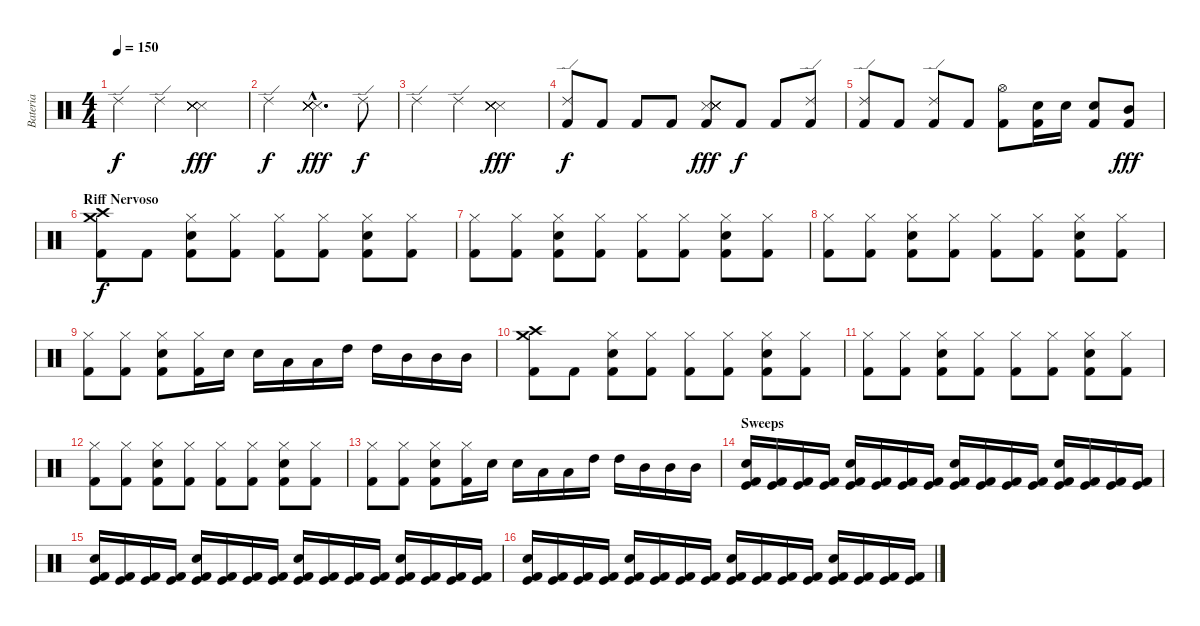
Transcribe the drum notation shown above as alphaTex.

\track ("Bateria" "Bateria") {instrument percussion}
\staff {score}
\articulation defaults
\ts (4 4)
\tempo 150
\clef neutral
\ks c "Ride (edge) 2".4{dy f} "Ride (edge) 2".4
("Snare (side stick) 3" "Snare (side stick) 3" "Snare (side stick) 3" "Snare (side stick) 3" "Snare (side stick) 3" "Snare (side stick) 3").2{dy fff} |
"Ride (edge) 2".2{dy f} ("Snare (side stick) 3"{hac} "Snare (side stick) 3"{hac} "Snare (side stick) 3"{hac} "Snare (side stick) 3"{hac} "Snare (side stick) 3"{hac} "Snare (side stick) 3"{hac}).4{d dy fff} "Ride (edge) 2".8{dy f} |
"Ride (edge) 2".4 "Ride (edge) 2".4 ("Snare (side stick) 3" "Snare (side stick) 3" "Snare (side stick) 3" "Snare (side stick) 3" "Snare (side stick) 3" "Snare (side stick) 3").2{dy fff} |
("Kick (hit) 2" "Ride (edge) 2").8{dy f} "Kick (hit) 2".8 "Kick (hit) 2".8 "Kick (hit) 2".8 ("Kick (hit) 2" "Snare (side stick) 3" "Snare (side stick) 3" "Snare (side stick) 3" "Snare (side stick) 3" "Snare (side stick) 3").8{dy fff} "Kick (hit) 2".8{dy f} "Kick (hit) 2".8 ("Kick (hit) 2" "Ride (edge) 2").8 |
("Kick (hit) 2" "Ride (edge) 2").8 "Kick (hit) 2".8 ("Kick (hit) 2" "Ride (edge) 2").8 "Kick (hit) 2".8 ("Kick (hit) 2" "Hi-Hat (open)").8 ("Kick (hit) 2" "Electric Snare (hit)").16 "Electric Snare (hit)".16 ("Kick (hit) 2" "Electric Snare (hit)").8 ("Kick (hit) 2" "Mid Tom (hit)").8{dy fff} |
\section ("" "Riff Nervoso")
("Kick (hit) 2" "Crash medium (hit)" "Crash high (hit)").8{dy f} "Kick (hit) 2".8 ("Kick (hit) 2" "Hi-Hat (closed)" "Electric Snare (hit)").8 ("Kick (hit) 2" "Hi-Hat (closed)").8 ("Kick (hit) 2" "Hi-Hat (closed)").8 ("Kick (hit) 2" "Hi-Hat (closed)").8 ("Kick (hit) 2" "Hi-Hat (closed)" "Electric Snare (hit)").8 ("Kick (hit) 2" "Hi-Hat (closed)").8 |
("Kick (hit) 2" "Hi-Hat (closed)").8 ("Kick (hit) 2" "Hi-Hat (closed)").8 ("Kick (hit) 2" "Hi-Hat (closed)" "Electric Snare (hit)").8 ("Kick (hit) 2" "Hi-Hat (closed)").8 ("Kick (hit) 2" "Hi-Hat (closed)").8 ("Kick (hit) 2" "Hi-Hat (closed)").8 ("Kick (hit) 2" "Hi-Hat (closed)" "Electric Snare (hit)").8 ("Kick (hit) 2" "Hi-Hat (closed)").8 |
("Kick (hit) 2" "Hi-Hat (closed)").8 ("Kick (hit) 2" "Hi-Hat (closed)").8 ("Kick (hit) 2" "Hi-Hat (closed)" "Electric Snare (hit)").8 ("Kick (hit) 2" "Hi-Hat (closed)").8 ("Kick (hit) 2" "Hi-Hat (closed)").8 ("Kick (hit) 2" "Hi-Hat (closed)").8 ("Kick (hit) 2" "Hi-Hat (closed)" "Electric Snare (hit)").8 ("Kick (hit) 2" "Hi-Hat (closed)").8 |
("Kick (hit) 2" "Hi-Hat (closed)").8 ("Kick (hit) 2" "Hi-Hat (closed)").8 ("Kick (hit) 2" "Hi-Hat (closed)" "Electric Snare (hit)").8 ("Kick (hit) 2" "Hi-Hat (closed)").16 "Electric Snare (hit)".16 "Electric Snare (hit)".16 "Low Tom (hit)".16 "Low Tom (hit)".16 "High Tom (hit)".16 "High Tom (hit)".16 "Mid Tom (hit)".16 "Mid Tom (hit)".16 "Mid Tom (hit)".16 |
("Kick (hit) 2" "Crash medium (hit)" "Crash high (hit)").8 "Kick (hit) 2".8 ("Kick (hit) 2" "Hi-Hat (closed)" "Electric Snare (hit)").8 ("Kick (hit) 2" "Hi-Hat (closed)").8 ("Kick (hit) 2" "Hi-Hat (closed)").8 ("Kick (hit) 2" "Hi-Hat (closed)").8 ("Kick (hit) 2" "Hi-Hat (closed)" "Electric Snare (hit)").8 ("Kick (hit) 2" "Hi-Hat (closed)").8 |
("Kick (hit) 2" "Hi-Hat (closed)").8 ("Kick (hit) 2" "Hi-Hat (closed)").8 ("Kick (hit) 2" "Hi-Hat (closed)" "Electric Snare (hit)").8 ("Kick (hit) 2" "Hi-Hat (closed)").8 ("Kick (hit) 2" "Hi-Hat (closed)").8 ("Kick (hit) 2" "Hi-Hat (closed)").8 ("Kick (hit) 2" "Hi-Hat (closed)" "Electric Snare (hit)").8 ("Kick (hit) 2" "Hi-Hat (closed)").8 |
("Kick (hit) 2" "Hi-Hat (closed)").8 ("Kick (hit) 2" "Hi-Hat (closed)").8 ("Kick (hit) 2" "Hi-Hat (closed)" "Electric Snare (hit)").8 ("Kick (hit) 2" "Hi-Hat (closed)").8 ("Kick (hit) 2" "Hi-Hat (closed)").8 ("Kick (hit) 2" "Hi-Hat (closed)").8 ("Kick (hit) 2" "Hi-Hat (closed)" "Electric Snare (hit)").8 ("Kick (hit) 2" "Hi-Hat (closed)").8 |
("Kick (hit) 2" "Hi-Hat (closed)").8 ("Kick (hit) 2" "Hi-Hat (closed)").8 ("Kick (hit) 2" "Hi-Hat (closed)" "Electric Snare (hit)").8 ("Kick (hit) 2" "Hi-Hat (closed)").16 "Electric Snare (hit)".16 "Electric Snare (hit)".16 "Low Tom (hit)".16 "Low Tom (hit)".16 "High Tom (hit)".16 "High Tom (hit)".16 "Mid Tom (hit)".16 "Mid Tom (hit)".16 "Mid Tom (hit)".16 |
\section ("" "Sweeps")
("Kick (hit) 2" "Kick (hit)" "Electric Snare (hit)").16 ("Kick (hit) 2" "Kick (hit)").16 ("Kick (hit) 2" "Kick (hit)").16 ("Kick (hit) 2" "Kick (hit)").16 ("Kick (hit) 2" "Kick (hit)" "Electric Snare (hit)").16 ("Kick (hit) 2" "Kick (hit)").16 ("Kick (hit) 2" "Kick (hit)").16 ("Kick (hit) 2" "Kick (hit)").16 ("Kick (hit) 2" "Kick (hit)" "Electric Snare (hit)").16 ("Kick (hit) 2" "Kick (hit)").16 ("Kick (hit) 2" "Kick (hit)").16 ("Kick (hit) 2" "Kick (hit)").16 ("Kick (hit) 2" "Kick (hit)" "Electric Snare (hit)").16 ("Kick (hit) 2" "Kick (hit)").16 ("Kick (hit) 2" "Kick (hit)").16 ("Kick (hit) 2" "Kick (hit)").16 |
("Kick (hit) 2" "Kick (hit)" "Electric Snare (hit)").16 ("Kick (hit) 2" "Kick (hit)").16 ("Kick (hit) 2" "Kick (hit)").16 ("Kick (hit) 2" "Kick (hit)").16 ("Kick (hit) 2" "Kick (hit)" "Electric Snare (hit)").16 ("Kick (hit) 2" "Kick (hit)").16 ("Kick (hit) 2" "Kick (hit)").16 ("Kick (hit) 2" "Kick (hit)").16 ("Kick (hit) 2" "Kick (hit)" "Electric Snare (hit)").16 ("Kick (hit) 2" "Kick (hit)").16 ("Kick (hit) 2" "Kick (hit)").16 ("Kick (hit) 2" "Kick (hit)").16 ("Kick (hit) 2" "Kick (hit)" "Electric Snare (hit)").16 ("Kick (hit) 2" "Kick (hit)").16 ("Kick (hit) 2" "Kick (hit)").16 ("Kick (hit) 2" "Kick (hit)").16 |
("Kick (hit) 2" "Kick (hit)" "Electric Snare (hit)").16 ("Kick (hit) 2" "Kick (hit)").16 ("Kick (hit) 2" "Kick (hit)").16 ("Kick (hit) 2" "Kick (hit)").16 ("Kick (hit) 2" "Kick (hit)" "Electric Snare (hit)").16 ("Kick (hit) 2" "Kick (hit)").16 ("Kick (hit) 2" "Kick (hit)").16 ("Kick (hit) 2" "Kick (hit)").16 ("Kick (hit) 2" "Kick (hit)" "Electric Snare (hit)").16 ("Kick (hit) 2" "Kick (hit)").16 ("Kick (hit) 2" "Kick (hit)").16 ("Kick (hit) 2" "Kick (hit)").16 ("Kick (hit) 2" "Kick (hit)" "Electric Snare (hit)").16 ("Kick (hit) 2" "Kick (hit)").16 ("Kick (hit) 2" "Kick (hit)").16 ("Kick (hit) 2" "Kick (hit)").16
